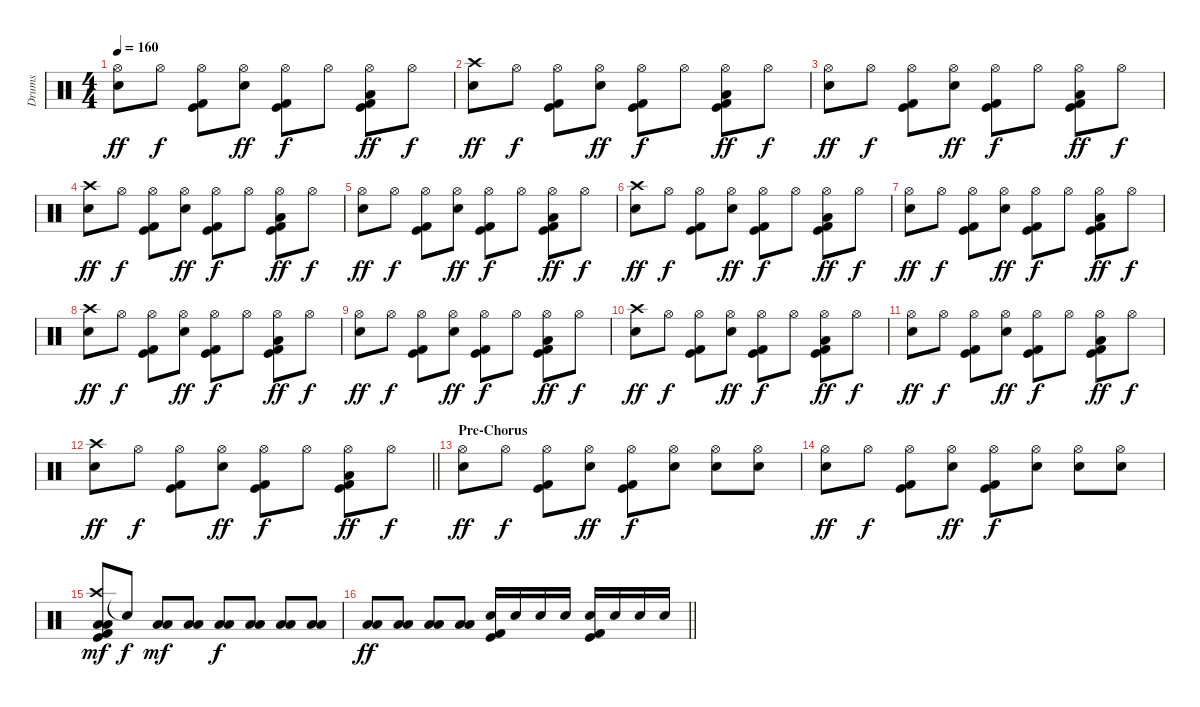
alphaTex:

\track ("Drums" "Drums") {instrument percussion}
\staff {score}
\articulation defaults
\ts (4 4)
\tempo 160
\clef neutral
\ks c
("Hi-Hat (open)" "Snare (hit) 2").8{dy ff} "Hi-Hat (open)".8{dy f} ("Hi-Hat (open)" "Kick (hit)" "Kick (hit) 2").8 ("Hi-Hat (open)" "Snare (hit) 2").8{dy ff} ("Hi-Hat (open)" "Kick (hit)" "Kick (hit) 2").8{dy f} "Hi-Hat (open)".8 ("Hi-Hat (open)" "Low Tom (hit)" "Kick (hit)" "Kick (hit) 2").8{dy ff} "Hi-Hat (open)".8{dy f} |
("Crash high (hit)" "Snare (hit) 2").8{dy ff} "Hi-Hat (open)".8{dy f} ("Hi-Hat (open)" "Kick (hit)" "Kick (hit) 2").8 ("Hi-Hat (open)" "Snare (hit) 2").8{dy ff} ("Hi-Hat (open)" "Kick (hit)" "Kick (hit) 2").8{dy f} "Hi-Hat (open)".8 ("Hi-Hat (open)" "Low Tom (hit)" "Kick (hit)" "Kick (hit) 2").8{dy ff} "Hi-Hat (open)".8{dy f} |
("Hi-Hat (open)" "Snare (hit) 2").8{dy ff} "Hi-Hat (open)".8{dy f} ("Hi-Hat (open)" "Kick (hit)" "Kick (hit) 2").8 ("Hi-Hat (open)" "Snare (hit) 2").8{dy ff} ("Hi-Hat (open)" "Kick (hit)" "Kick (hit) 2").8{dy f} "Hi-Hat (open)".8 ("Hi-Hat (open)" "Low Tom (hit)" "Kick (hit)" "Kick (hit) 2").8{dy ff} "Hi-Hat (open)".8{dy f} |
("Crash high (hit)" "Snare (hit) 2").8{dy ff} "Hi-Hat (open)".8{dy f} ("Hi-Hat (open)" "Kick (hit)" "Kick (hit) 2").8 ("Hi-Hat (open)" "Snare (hit) 2").8{dy ff} ("Hi-Hat (open)" "Kick (hit)" "Kick (hit) 2").8{dy f} "Hi-Hat (open)".8 ("Hi-Hat (open)" "Low Tom (hit)" "Kick (hit)" "Kick (hit) 2").8{dy ff} "Hi-Hat (open)".8{dy f} |
("Hi-Hat (open)" "Snare (hit) 2").8{dy ff} "Hi-Hat (open)".8{dy f} ("Hi-Hat (open)" "Kick (hit)" "Kick (hit) 2").8 ("Hi-Hat (open)" "Snare (hit) 2").8{dy ff} ("Hi-Hat (open)" "Kick (hit)" "Kick (hit) 2").8{dy f} "Hi-Hat (open)".8 ("Hi-Hat (open)" "Low Tom (hit)" "Kick (hit)" "Kick (hit) 2").8{dy ff} "Hi-Hat (open)".8{dy f} |
("Crash high (hit)" "Snare (hit) 2").8{dy ff} "Hi-Hat (open)".8{dy f} ("Hi-Hat (open)" "Kick (hit)" "Kick (hit) 2").8 ("Hi-Hat (open)" "Snare (hit) 2").8{dy ff} ("Hi-Hat (open)" "Kick (hit)" "Kick (hit) 2").8{dy f} "Hi-Hat (open)".8 ("Hi-Hat (open)" "Low Tom (hit)" "Kick (hit)" "Kick (hit) 2").8{dy ff} "Hi-Hat (open)".8{dy f} |
("Hi-Hat (open)" "Snare (hit) 2").8{dy ff} "Hi-Hat (open)".8{dy f} ("Hi-Hat (open)" "Kick (hit)" "Kick (hit) 2").8 ("Hi-Hat (open)" "Snare (hit) 2").8{dy ff} ("Hi-Hat (open)" "Kick (hit)" "Kick (hit) 2").8{dy f} "Hi-Hat (open)".8 ("Hi-Hat (open)" "Low Tom (hit)" "Kick (hit)" "Kick (hit) 2").8{dy ff} "Hi-Hat (open)".8{dy f} |
("Crash high (hit)" "Snare (hit) 2").8{dy ff} "Hi-Hat (open)".8{dy f} ("Hi-Hat (open)" "Kick (hit)" "Kick (hit) 2").8 ("Hi-Hat (open)" "Snare (hit) 2").8{dy ff} ("Hi-Hat (open)" "Kick (hit)" "Kick (hit) 2").8{dy f} "Hi-Hat (open)".8 ("Hi-Hat (open)" "Low Tom (hit)" "Kick (hit)" "Kick (hit) 2").8{dy ff} "Hi-Hat (open)".8{dy f} |
("Hi-Hat (open)" "Snare (hit) 2").8{dy ff} "Hi-Hat (open)".8{dy f} ("Hi-Hat (open)" "Kick (hit)" "Kick (hit) 2").8 ("Hi-Hat (open)" "Snare (hit) 2").8{dy ff} ("Hi-Hat (open)" "Kick (hit)" "Kick (hit) 2").8{dy f} "Hi-Hat (open)".8 ("Hi-Hat (open)" "Low Tom (hit)" "Kick (hit)" "Kick (hit) 2").8{dy ff} "Hi-Hat (open)".8{dy f} |
("Crash high (hit)" "Snare (hit) 2").8{dy ff} "Hi-Hat (open)".8{dy f} ("Hi-Hat (open)" "Kick (hit)" "Kick (hit) 2").8 ("Hi-Hat (open)" "Snare (hit) 2").8{dy ff} ("Hi-Hat (open)" "Kick (hit)" "Kick (hit) 2").8{dy f} "Hi-Hat (open)".8 ("Hi-Hat (open)" "Low Tom (hit)" "Kick (hit)" "Kick (hit) 2").8{dy ff} "Hi-Hat (open)".8{dy f} |
("Hi-Hat (open)" "Snare (hit) 2").8{dy ff} "Hi-Hat (open)".8{dy f} ("Hi-Hat (open)" "Kick (hit)" "Kick (hit) 2").8 ("Hi-Hat (open)" "Snare (hit) 2").8{dy ff} ("Hi-Hat (open)" "Kick (hit)" "Kick (hit) 2").8{dy f} "Hi-Hat (open)".8 ("Hi-Hat (open)" "Low Tom (hit)" "Kick (hit)" "Kick (hit) 2").8{dy ff} "Hi-Hat (open)".8{dy f} |
\barLineRight lightlight
("Crash high (hit)" "Snare (hit) 2").8{dy ff} "Hi-Hat (open)".8{dy f} ("Hi-Hat (open)" "Kick (hit)" "Kick (hit) 2").8 ("Hi-Hat (open)" "Snare (hit) 2").8{dy ff} ("Hi-Hat (open)" "Kick (hit)" "Kick (hit) 2").8{dy f} "Hi-Hat (open)".8 ("Hi-Hat (open)" "Low Tom (hit)" "Kick (hit)" "Kick (hit) 2").8{dy ff} "Hi-Hat (open)".8{dy f} |
\section ("" "Pre-Chorus")
("Hi-Hat (open)" "Snare (hit) 2").8{dy ff} "Hi-Hat (open)".8{dy f} ("Hi-Hat (open)" "Kick (hit)" "Kick (hit) 2").8 ("Hi-Hat (open)" "Snare (hit) 2").8{dy ff} ("Hi-Hat (open)" "Kick (hit)" "Kick (hit) 2").8{dy f} ("Hi-Hat (open)" "Snare (hit) 2").8 ("Hi-Hat (open)" "Snare (hit) 2").8 ("Hi-Hat (open)" "Snare (hit) 2").8 |
("Hi-Hat (open)" "Snare (hit) 2").8{dy ff} "Hi-Hat (open)".8{dy f} ("Hi-Hat (open)" "Kick (hit)" "Kick (hit) 2").8 ("Hi-Hat (open)" "Snare (hit) 2").8{dy ff} ("Hi-Hat (open)" "Kick (hit)" "Kick (hit) 2").8{dy f} ("Hi-Hat (open)" "Snare (hit) 2").8 ("Hi-Hat (open)" "Snare (hit) 2").8 ("Hi-Hat (open)" "Snare (hit) 2").8 |
("Crash high (hit)" "Low Tom (hit)" "Low Floor Tom (hit)" "Kick (hit)" "Kick (hit) 2").8{dy mf} "Snare (hit)"{t}.8{dy f} ("Low Tom (hit)" "Low Floor Tom (hit)").8{dy mf} ("Low Tom (hit)" "Low Floor Tom (hit)").8 ("Low Tom (hit)" "Low Floor Tom (hit)").8{dy f} ("Low Tom (hit)" "Low Floor Tom (hit)").8 ("Low Tom (hit)" "Low Floor Tom (hit)").8 ("Low Tom (hit)" "Low Floor Tom (hit)").8 |
\barLineRight lightlight
("Low Tom (hit)" "Low Floor Tom (hit)").8{dy ff} ("Low Tom (hit)" "Low Floor Tom (hit)").8 ("Low Tom (hit)" "Low Floor Tom (hit)").8 ("Low Tom (hit)" "Low Floor Tom (hit)").8 ("Snare (hit) 2" "Kick (hit)" "Kick (hit) 2").16 "Snare (hit) 2".16 "Snare (hit) 2".16 "Snare (hit) 2".16 ("Snare (hit) 2" "Kick (hit)" "Kick (hit) 2").16 "Snare (hit) 2".16 "Snare (hit) 2".16 "Snare (hit) 2".16
